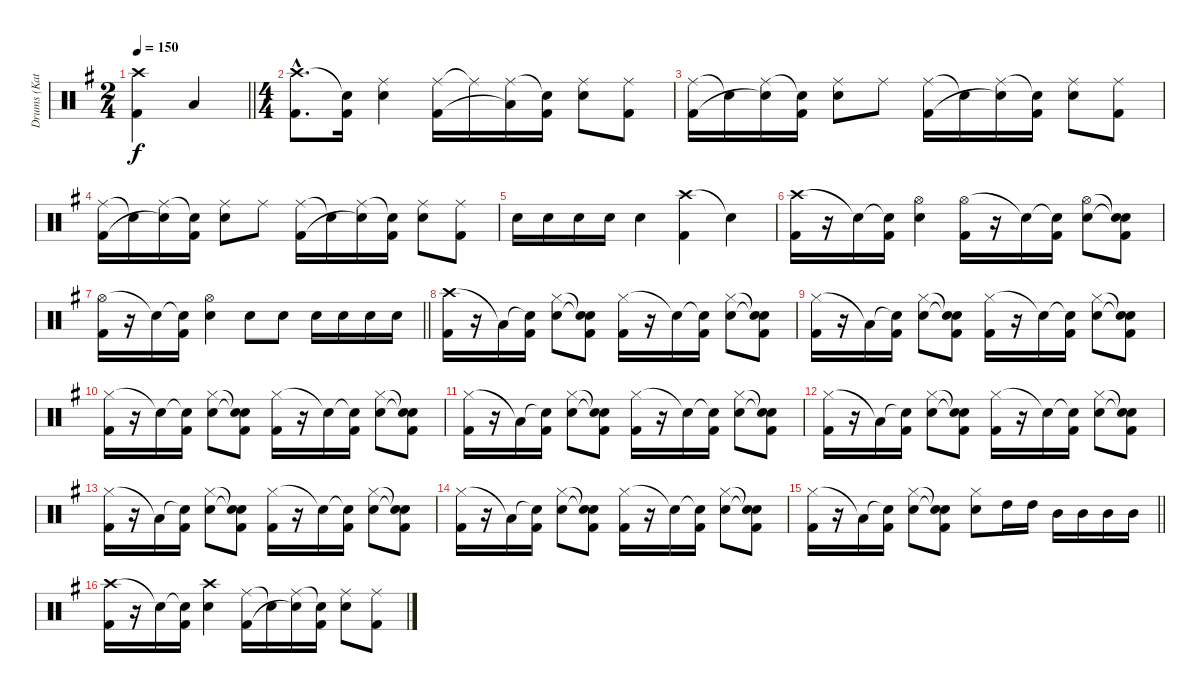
\track ("Drums (Katsuji)" "Drums (Kat") {instrument percussion}
\staff {score}
\articulation defaults
\ts (2 4)
\tempo 150
\clef neutral
\barLineRight lightlight
\ks g
("Crash high (hit)" "Kick (hit) 2").4{dy f} "Low Tom (hit)".4 |
\ts (4 4)
("Crash high (hit)"{hac} "Kick (hit) 2"{hac}).8{d} ("Snare (hit)"{t} "Kick (hit) 2").16 ("Ride (middle)" "Snare (hit) 2").4 ("Ride (middle)" "Kick (hit) 2").16 "Ride (middle)"{t}.16 ("Ride (middle)" "Low Floor Tom (hit)"{t}).16 ("Snare (hit)"{t} "Kick (hit) 2").16 ("Ride (middle)" "Snare (hit) 2").8 ("Ride (middle)" "Kick (hit) 2").8 |
("Ride (middle)" "Kick (hit) 2").16 "Snare (hit)"{t}.16 ("Ride (middle)" "Snare (hit)"{t}).16 ("Snare (hit)"{t} "Kick (hit) 2").16 ("Ride (middle)" "Snare (hit) 2").8 "Ride (middle)".8 ("Ride (middle)" "Kick (hit) 2").16 "Snare (hit)"{t}.16 ("Ride (middle)" "Snare (hit)"{t}).16 ("Snare (hit)"{t} "Kick (hit) 2").16 ("Ride (middle)" "Snare (hit) 2").8 ("Ride (middle)" "Kick (hit) 2").8 |
("Ride (middle)" "Kick (hit) 2").16 "Snare (hit)"{t}.16 ("Ride (middle)" "Snare (hit)"{t}).16 ("Snare (hit)"{t} "Kick (hit) 2").16 ("Ride (middle)" "Snare (hit) 2").8 "Ride (middle)".8 ("Ride (middle)" "Kick (hit) 2").16 "Snare (hit)"{t}.16 ("Ride (middle)" "Snare (hit)"{t}).16 ("Snare (hit)"{t} "Kick (hit) 2").16 ("Ride (middle)" "Snare (hit) 2").8 ("Ride (middle)" "Kick (hit) 2").8 |
"Snare (hit) 2".16 "Snare (hit) 2".16 "Snare (hit) 2".16 "Snare (hit) 2".16 "Snare (hit) 2".4 ("Crash high (hit)" "Kick (hit) 2").4 "Snare (hit)"{t}.4 |
("Crash high (hit)" "Kick (hit) 2").16 r.16 "Snare (hit)"{t}.16 ("Snare (hit)"{t} "Kick (hit) 2").16 ("Hi-Hat (open)" "Snare (hit) 2").4 ("Hi-Hat (open)" "Kick (hit) 2").16 r.16 "Snare (hit)"{t}.16 ("Snare (hit)"{t} "Kick (hit) 2").16 ("Hi-Hat (open)" "Snare (hit) 2").8 ("Snare (hit)"{t} "Snare (hit)"{t} "Kick (hit) 2").8 |
\barLineRight lightlight
("Hi-Hat (open)" "Kick (hit) 2").16 r.16 "Snare (hit)"{t}.16 ("Snare (hit)"{t} "Kick (hit) 2").16 ("Hi-Hat (open)" "Snare (hit) 2").4 "Snare (hit) 2".8 "Snare (hit) 2".8 "Snare (hit) 2".16 "Snare (hit) 2".16 "Snare (hit) 2".16 "Snare (hit) 2".16 |
("Crash high (hit)" "Kick (hit) 2").16 r.16 "Low Floor Tom (hit)"{t}.16 ("Snare (hit)"{t} "Kick (hit) 2").16 ("Hi-Hat (closed)" "Snare (hit) 2").8 ("Snare (hit)"{t} "Snare (hit)"{t} "Kick (hit) 2").8 ("Hi-Hat (closed)" "Kick (hit) 2").16 r.16 "Snare (hit)"{t}.16 ("Snare (hit)"{t} "Kick (hit) 2").16 ("Hi-Hat (closed)" "Snare (hit) 2").8 ("Snare (hit)"{t} "Snare (hit)"{t} "Kick (hit) 2").8 |
("Hi-Hat (closed)" "Kick (hit) 2").16 r.16 "Low Floor Tom (hit)"{t}.16 ("Snare (hit)"{t} "Kick (hit) 2").16 ("Hi-Hat (closed)" "Snare (hit) 2").8 ("Snare (hit)"{t} "Snare (hit)"{t} "Kick (hit) 2").8 ("Hi-Hat (closed)" "Kick (hit) 2").16 r.16 "Snare (hit)"{t}.16 ("Snare (hit)"{t} "Kick (hit) 2").16 ("Hi-Hat (closed)" "Snare (hit) 2").8 ("Snare (hit)"{t} "Snare (hit)"{t} "Kick (hit) 2").8 |
("Hi-Hat (closed)" "Kick (hit) 2").16 r.16 "Snare (hit)"{t}.16 ("Snare (hit)"{t} "Kick (hit) 2").16 ("Hi-Hat (closed)" "Snare (hit) 2").8 ("Snare (hit)"{t} "Snare (hit)"{t} "Kick (hit) 2").8 ("Hi-Hat (closed)" "Kick (hit) 2").16 r.16 "Snare (hit)"{t}.16 ("Snare (hit)"{t} "Kick (hit) 2").16 ("Hi-Hat (closed)" "Snare (hit) 2").8 ("Snare (hit)"{t} "Snare (hit)"{t} "Kick (hit) 2").8 |
("Hi-Hat (closed)" "Kick (hit) 2").16 r.16 "Low Floor Tom (hit)"{t}.16 ("Snare (hit)"{t} "Kick (hit) 2").16 ("Hi-Hat (closed)" "Snare (hit) 2").8 ("Snare (hit)"{t} "Snare (hit)"{t} "Kick (hit) 2").8 ("Hi-Hat (closed)" "Kick (hit) 2").16 r.16 "Snare (hit)"{t}.16 ("Snare (hit)"{t} "Kick (hit) 2").16 ("Hi-Hat (closed)" "Snare (hit) 2").8 ("Snare (hit)"{t} "Snare (hit)"{t} "Kick (hit) 2").8 |
("Hi-Hat (closed)" "Kick (hit) 2").16 r.16 "Low Floor Tom (hit)"{t}.16 ("Snare (hit)"{t} "Kick (hit) 2").16 ("Hi-Hat (closed)" "Snare (hit) 2").8 ("Snare (hit)"{t} "Snare (hit)"{t} "Kick (hit) 2").8 ("Hi-Hat (closed)" "Kick (hit) 2").16 r.16 "Snare (hit)"{t}.16 ("Snare (hit)"{t} "Kick (hit) 2").16 ("Hi-Hat (closed)" "Snare (hit) 2").8 ("Snare (hit)"{t} "Snare (hit)"{t} "Kick (hit) 2").8 |
("Hi-Hat (closed)" "Kick (hit) 2").16 r.16 "Low Floor Tom (hit)"{t}.16 ("Snare (hit)"{t} "Kick (hit) 2").16 ("Hi-Hat (closed)" "Snare (hit) 2").8 ("Snare (hit)"{t} "Snare (hit)"{t} "Kick (hit) 2").8 ("Hi-Hat (closed)" "Kick (hit) 2").16 r.16 "Snare (hit)"{t}.16 ("Snare (hit)"{t} "Kick (hit) 2").16 ("Hi-Hat (closed)" "Snare (hit) 2").8 ("Snare (hit)"{t} "Snare (hit)"{t} "Kick (hit) 2").8 |
("Hi-Hat (closed)" "Kick (hit) 2").16 r.16 "Low Floor Tom (hit)"{t}.16 ("Snare (hit)"{t} "Kick (hit) 2").16 ("Hi-Hat (closed)" "Snare (hit) 2").8 ("Snare (hit)"{t} "Snare (hit)"{t} "Kick (hit) 2").8 ("Hi-Hat (closed)" "Kick (hit) 2").16 r.16 "Snare (hit)"{t}.16 ("Snare (hit)"{t} "Kick (hit) 2").16 ("Hi-Hat (closed)" "Snare (hit) 2").8 ("Snare (hit)"{t} "Snare (hit)"{t} "Kick (hit) 2").8 |
\barLineRight lightlight
("Hi-Hat (closed)" "Kick (hit) 2").16 r.16 "Low Floor Tom (hit)"{t}.16 ("Snare (hit)"{t} "Kick (hit) 2").16 ("Hi-Hat (closed)" "Snare (hit) 2").8 ("Snare (hit)"{t} "Snare (hit)"{t} "Kick (hit) 2").8 ("Hi-Hat (closed)" "Snare (hit) 2").8 "High Tom (hit)".16 "High Tom (hit)".16 "Mid Tom (hit)".16 "Mid Tom (hit)".16 "Mid Tom (hit)".16 "Mid Tom (hit)".16 |
("Crash high (hit)" "Kick (hit) 2").16 r.16 "Snare (hit)"{t}.16 ("Snare (hit)"{t} "Kick (hit) 2").16 ("Crash high (hit)" "Snare (hit) 2").4 ("Ride (middle)" "Kick (hit) 2").16 "Snare (hit)"{t}.16 ("Ride (middle)" "Snare (hit)"{t}).16 ("Snare (hit)"{t} "Kick (hit) 2").16 ("Ride (middle)" "Snare (hit) 2").8 ("Ride (middle)" "Kick (hit) 2").8
